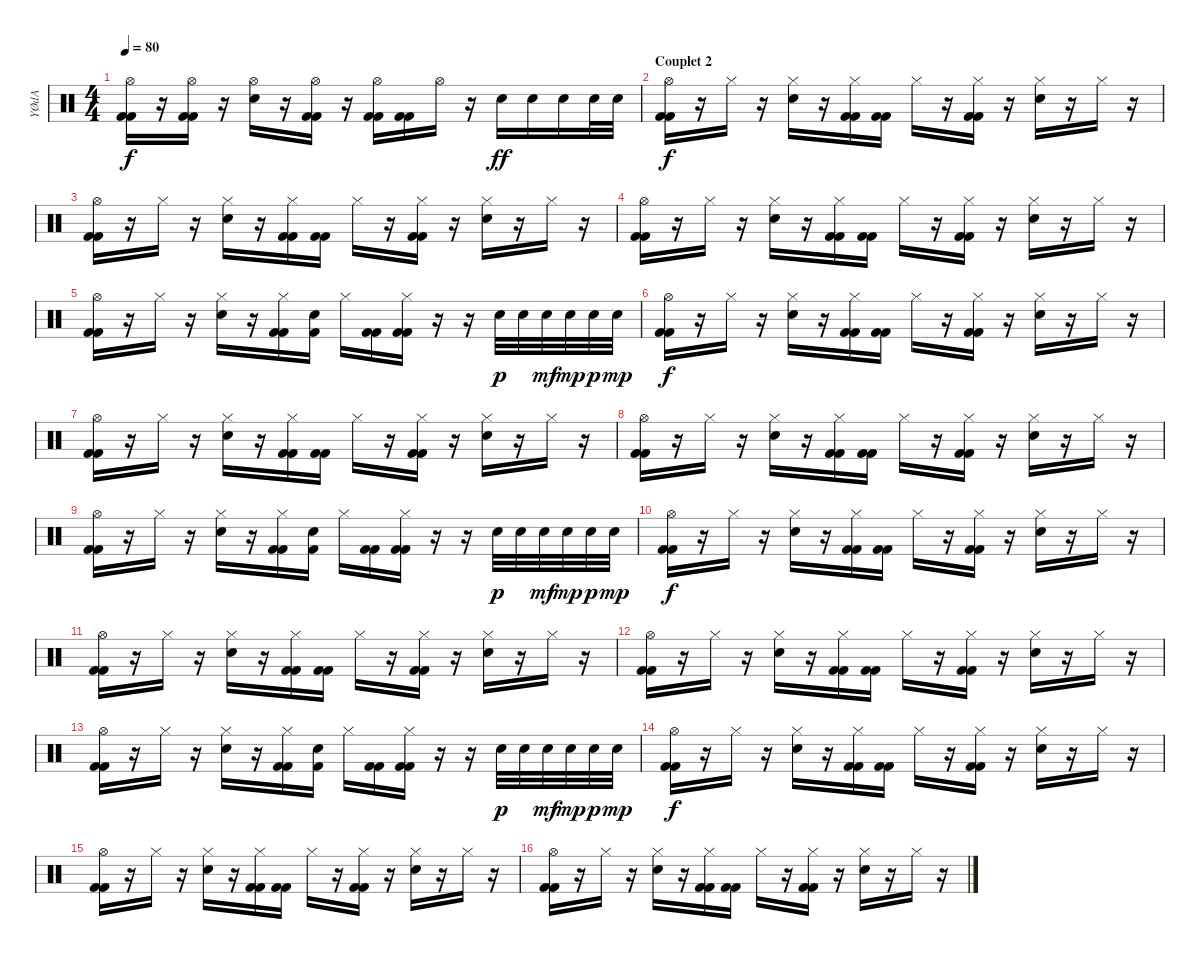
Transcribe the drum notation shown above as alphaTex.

\track ("YØdA" "YØdA") {instrument percussion}
\staff {score}
\articulation defaults
\ts (4 4)
\tempo 80
\clef neutral
\ks c
("Kick (hit) 2" "Hi-Hat (open)" "Kick (hit) 2").16{dy f} r.16 ("Kick (hit) 2" "Hi-Hat (open)" "Kick (hit) 2").16 r.16 ("Hi-Hat (open)" "Electric Snare (hit)").16 r.16 ("Kick (hit) 2" "Hi-Hat (open)" "Kick (hit) 2").16 r.16 ("Kick (hit) 2" "Hi-Hat (open)" "Kick (hit) 2").16 ("Kick (hit) 2" "Kick (hit) 2").16 "Hi-Hat (open)".16 r.16 "Electric Snare (hit)".16{dy ff} "Electric Snare (hit)".16 "Electric Snare (hit)".16 "Electric Snare (hit)".32 "Electric Snare (hit)".32 |
\section ("" "Couplet 2")
("Kick (hit) 2" "Hi-Hat (open)" "Kick (hit) 2").16{dy f} r.16 "Hi-Hat (closed)".16 r.16 ("Hi-Hat (closed)" "Electric Snare (hit)").16 r.16 ("Kick (hit) 2" "Hi-Hat (closed)" "Kick (hit) 2").16 ("Kick (hit) 2" "Kick (hit) 2").16 "Hi-Hat (closed)".16 r.16 ("Kick (hit) 2" "Hi-Hat (closed)" "Kick (hit) 2").16 r.16 ("Hi-Hat (closed)" "Electric Snare (hit)").16 r.16 "Hi-Hat (closed)".16 r.16 |
("Kick (hit) 2" "Hi-Hat (open)" "Kick (hit) 2").16 r.16 "Hi-Hat (closed)".16 r.16 ("Hi-Hat (closed)" "Electric Snare (hit)").16 r.16 ("Kick (hit) 2" "Hi-Hat (closed)" "Kick (hit) 2").16 ("Kick (hit) 2" "Kick (hit) 2").16 "Hi-Hat (closed)".16 r.16 ("Kick (hit) 2" "Hi-Hat (closed)" "Kick (hit) 2").16 r.16 ("Hi-Hat (closed)" "Electric Snare (hit)").16 r.16 "Hi-Hat (closed)".16 r.16 |
("Kick (hit) 2" "Hi-Hat (open)" "Kick (hit) 2").16 r.16 "Hi-Hat (closed)".16 r.16 ("Hi-Hat (closed)" "Electric Snare (hit)").16 r.16 ("Kick (hit) 2" "Hi-Hat (closed)" "Kick (hit) 2").16 ("Kick (hit) 2" "Kick (hit) 2").16 "Hi-Hat (closed)".16 r.16 ("Kick (hit) 2" "Hi-Hat (closed)" "Kick (hit) 2").16 r.16 ("Hi-Hat (closed)" "Electric Snare (hit)").16 r.16 "Hi-Hat (closed)".16 r.16 |
("Kick (hit) 2" "Hi-Hat (open)" "Kick (hit) 2").16 r.16 "Hi-Hat (closed)".16 r.16 ("Hi-Hat (closed)" "Electric Snare (hit)").16 r.16 ("Kick (hit) 2" "Hi-Hat (closed)" "Kick (hit) 2").16 ("Kick (hit) 2" "Electric Snare (hit)").16 "Hi-Hat (closed)".16 ("Kick (hit) 2" "Kick (hit) 2").16 ("Kick (hit) 2" "Hi-Hat (closed)" "Kick (hit) 2").16 r.16 r.16 "Electric Snare (hit)".32{dy p} "Electric Snare (hit)".32 "Electric Snare (hit)".32{dy mf} "Electric Snare (hit)".32{dy mp} "Electric Snare (hit)".32{dy p} "Electric Snare (hit)".32{dy mp} |
("Kick (hit) 2" "Hi-Hat (open)" "Kick (hit) 2").16{dy f} r.16 "Hi-Hat (closed)".16 r.16 ("Hi-Hat (closed)" "Electric Snare (hit)").16 r.16 ("Kick (hit) 2" "Hi-Hat (closed)" "Kick (hit) 2").16 ("Kick (hit) 2" "Kick (hit) 2").16 "Hi-Hat (closed)".16 r.16 ("Kick (hit) 2" "Hi-Hat (closed)" "Kick (hit) 2").16 r.16 ("Hi-Hat (closed)" "Electric Snare (hit)").16 r.16 "Hi-Hat (closed)".16 r.16 |
("Kick (hit) 2" "Hi-Hat (open)" "Kick (hit) 2").16 r.16 "Hi-Hat (closed)".16 r.16 ("Hi-Hat (closed)" "Electric Snare (hit)").16 r.16 ("Kick (hit) 2" "Hi-Hat (closed)" "Kick (hit) 2").16 ("Kick (hit) 2" "Kick (hit) 2").16 "Hi-Hat (closed)".16 r.16 ("Kick (hit) 2" "Hi-Hat (closed)" "Kick (hit) 2").16 r.16 ("Hi-Hat (closed)" "Electric Snare (hit)").16 r.16 "Hi-Hat (closed)".16 r.16 |
("Kick (hit) 2" "Hi-Hat (open)" "Kick (hit) 2").16 r.16 "Hi-Hat (closed)".16 r.16 ("Hi-Hat (closed)" "Electric Snare (hit)").16 r.16 ("Kick (hit) 2" "Hi-Hat (closed)" "Kick (hit) 2").16 ("Kick (hit) 2" "Kick (hit) 2").16 "Hi-Hat (closed)".16 r.16 ("Kick (hit) 2" "Hi-Hat (closed)" "Kick (hit) 2").16 r.16 ("Hi-Hat (closed)" "Electric Snare (hit)").16 r.16 "Hi-Hat (closed)".16 r.16 |
("Kick (hit) 2" "Hi-Hat (open)" "Kick (hit) 2").16 r.16 "Hi-Hat (closed)".16 r.16 ("Hi-Hat (closed)" "Electric Snare (hit)").16 r.16 ("Kick (hit) 2" "Hi-Hat (closed)" "Kick (hit) 2").16 ("Kick (hit) 2" "Electric Snare (hit)").16 "Hi-Hat (closed)".16 ("Kick (hit) 2" "Kick (hit) 2").16 ("Kick (hit) 2" "Hi-Hat (closed)" "Kick (hit) 2").16 r.16 r.16 "Electric Snare (hit)".32{dy p} "Electric Snare (hit)".32 "Electric Snare (hit)".32{dy mf} "Electric Snare (hit)".32{dy mp} "Electric Snare (hit)".32{dy p} "Electric Snare (hit)".32{dy mp} |
("Kick (hit) 2" "Hi-Hat (open)" "Kick (hit) 2").16{dy f} r.16 "Hi-Hat (closed)".16 r.16 ("Hi-Hat (closed)" "Electric Snare (hit)").16 r.16 ("Kick (hit) 2" "Hi-Hat (closed)" "Kick (hit) 2").16 ("Kick (hit) 2" "Kick (hit) 2").16 "Hi-Hat (closed)".16 r.16 ("Kick (hit) 2" "Hi-Hat (closed)" "Kick (hit) 2").16 r.16 ("Hi-Hat (closed)" "Electric Snare (hit)").16 r.16 "Hi-Hat (closed)".16 r.16 |
("Kick (hit) 2" "Hi-Hat (open)" "Kick (hit) 2").16 r.16 "Hi-Hat (closed)".16 r.16 ("Hi-Hat (closed)" "Electric Snare (hit)").16 r.16 ("Kick (hit) 2" "Hi-Hat (closed)" "Kick (hit) 2").16 ("Kick (hit) 2" "Kick (hit) 2").16 "Hi-Hat (closed)".16 r.16 ("Kick (hit) 2" "Hi-Hat (closed)" "Kick (hit) 2").16 r.16 ("Hi-Hat (closed)" "Electric Snare (hit)").16 r.16 "Hi-Hat (closed)".16 r.16 |
("Kick (hit) 2" "Hi-Hat (open)" "Kick (hit) 2").16 r.16 "Hi-Hat (closed)".16 r.16 ("Hi-Hat (closed)" "Electric Snare (hit)").16 r.16 ("Kick (hit) 2" "Hi-Hat (closed)" "Kick (hit) 2").16 ("Kick (hit) 2" "Kick (hit) 2").16 "Hi-Hat (closed)".16 r.16 ("Kick (hit) 2" "Hi-Hat (closed)" "Kick (hit) 2").16 r.16 ("Hi-Hat (closed)" "Electric Snare (hit)").16 r.16 "Hi-Hat (closed)".16 r.16 |
("Kick (hit) 2" "Hi-Hat (open)" "Kick (hit) 2").16 r.16 "Hi-Hat (closed)".16 r.16 ("Hi-Hat (closed)" "Electric Snare (hit)").16 r.16 ("Kick (hit) 2" "Hi-Hat (closed)" "Kick (hit) 2").16 ("Kick (hit) 2" "Electric Snare (hit)").16 "Hi-Hat (closed)".16 ("Kick (hit) 2" "Kick (hit) 2").16 ("Kick (hit) 2" "Hi-Hat (closed)" "Kick (hit) 2").16 r.16 r.16 "Electric Snare (hit)".32{dy p} "Electric Snare (hit)".32 "Electric Snare (hit)".32{dy mf} "Electric Snare (hit)".32{dy mp} "Electric Snare (hit)".32{dy p} "Electric Snare (hit)".32{dy mp} |
("Kick (hit) 2" "Hi-Hat (open)" "Kick (hit) 2").16{dy f} r.16 "Hi-Hat (closed)".16 r.16 ("Hi-Hat (closed)" "Electric Snare (hit)").16 r.16 ("Kick (hit) 2" "Hi-Hat (closed)" "Kick (hit) 2").16 ("Kick (hit) 2" "Kick (hit) 2").16 "Hi-Hat (closed)".16 r.16 ("Kick (hit) 2" "Hi-Hat (closed)" "Kick (hit) 2").16 r.16 ("Hi-Hat (closed)" "Electric Snare (hit)").16 r.16 "Hi-Hat (closed)".16 r.16 |
("Kick (hit) 2" "Hi-Hat (open)" "Kick (hit) 2").16 r.16 "Hi-Hat (closed)".16 r.16 ("Hi-Hat (closed)" "Electric Snare (hit)").16 r.16 ("Kick (hit) 2" "Hi-Hat (closed)" "Kick (hit) 2").16 ("Kick (hit) 2" "Kick (hit) 2").16 "Hi-Hat (closed)".16 r.16 ("Kick (hit) 2" "Hi-Hat (closed)" "Kick (hit) 2").16 r.16 ("Hi-Hat (closed)" "Electric Snare (hit)").16 r.16 "Hi-Hat (closed)".16 r.16 |
("Kick (hit) 2" "Hi-Hat (open)" "Kick (hit) 2").16 r.16 "Hi-Hat (closed)".16 r.16 ("Hi-Hat (closed)" "Electric Snare (hit)").16 r.16 ("Kick (hit) 2" "Hi-Hat (closed)" "Kick (hit) 2").16 ("Kick (hit) 2" "Kick (hit) 2").16 "Hi-Hat (closed)".16 r.16 ("Kick (hit) 2" "Hi-Hat (closed)" "Kick (hit) 2").16 r.16 ("Hi-Hat (closed)" "Electric Snare (hit)").16 r.16 "Hi-Hat (closed)".16 r.16
